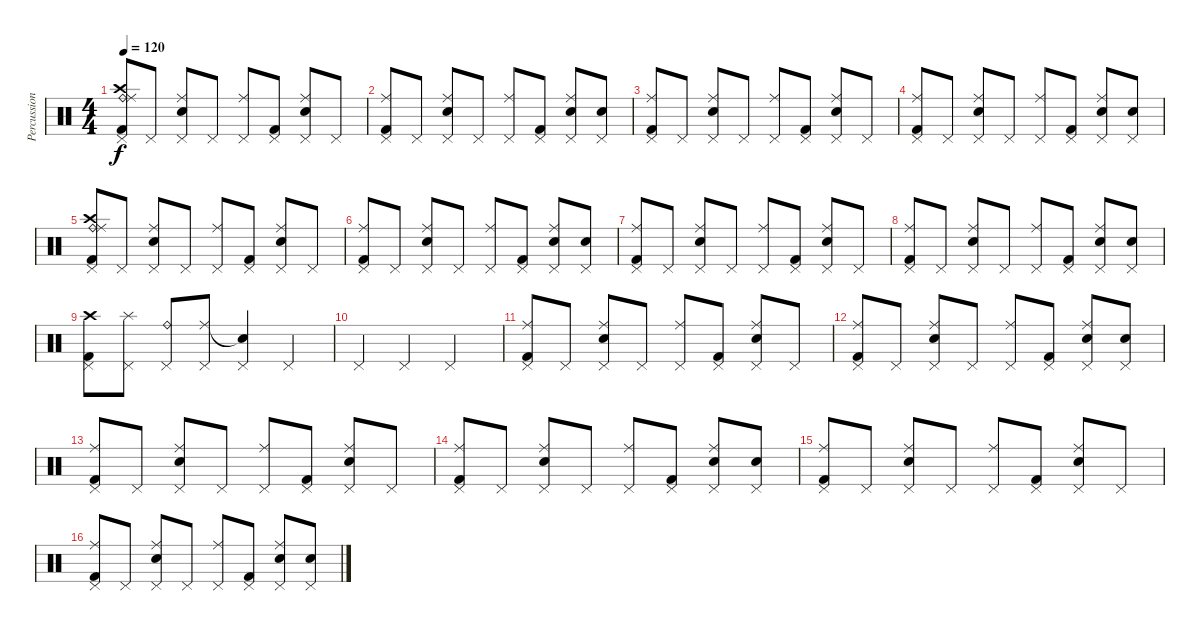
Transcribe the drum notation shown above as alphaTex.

\track ("Percussion" "Percussion") {instrument percussion}
\staff {score}
\articulation defaults
\ts (4 4)
\tempo 120
\clef neutral
\ks c
("Pedal Hi-Hat (hit)" "Kick (hit) 2" "Crash high (hit)" "Ride (bell)" "Ride (middle)").8{dy f} "Pedal Hi-Hat (hit)".8 ("Pedal Hi-Hat (hit)" "Electric Snare (hit)" "Ride (middle)").8 "Pedal Hi-Hat (hit)".8 ("Pedal Hi-Hat (hit)" "Ride (middle)").8 ("Pedal Hi-Hat (hit)" "Kick (hit) 2").8 ("Pedal Hi-Hat (hit)" "Electric Snare (hit)" "Ride (middle)").8 "Pedal Hi-Hat (hit)".8 |
("Pedal Hi-Hat (hit)" "Kick (hit) 2" "Ride (middle)").8 "Pedal Hi-Hat (hit)".8 ("Pedal Hi-Hat (hit)" "Electric Snare (hit)" "Ride (middle)").8 "Pedal Hi-Hat (hit)".8 ("Pedal Hi-Hat (hit)" "Ride (middle)").8 ("Pedal Hi-Hat (hit)" "Kick (hit) 2").8 ("Pedal Hi-Hat (hit)" "Electric Snare (hit)" "Ride (middle)").8 ("Pedal Hi-Hat (hit)" "Electric Snare (hit)").8 |
("Pedal Hi-Hat (hit)" "Kick (hit) 2" "Ride (middle)").8 "Pedal Hi-Hat (hit)".8 ("Pedal Hi-Hat (hit)" "Electric Snare (hit)" "Ride (middle)").8 "Pedal Hi-Hat (hit)".8 ("Pedal Hi-Hat (hit)" "Ride (middle)").8 ("Pedal Hi-Hat (hit)" "Kick (hit) 2").8 ("Pedal Hi-Hat (hit)" "Electric Snare (hit)" "Ride (middle)").8 "Pedal Hi-Hat (hit)".8 |
("Pedal Hi-Hat (hit)" "Kick (hit) 2" "Ride (middle)").8 "Pedal Hi-Hat (hit)".8 ("Pedal Hi-Hat (hit)" "Electric Snare (hit)" "Ride (middle)").8 "Pedal Hi-Hat (hit)".8 ("Pedal Hi-Hat (hit)" "Ride (middle)").8 ("Pedal Hi-Hat (hit)" "Kick (hit) 2").8 ("Pedal Hi-Hat (hit)" "Electric Snare (hit)" "Ride (middle)").8 ("Pedal Hi-Hat (hit)" "Electric Snare (hit)").8 |
("Pedal Hi-Hat (hit)" "Kick (hit) 2" "Crash high (hit)" "Ride (bell)" "Ride (middle)").8 "Pedal Hi-Hat (hit)".8 ("Pedal Hi-Hat (hit)" "Electric Snare (hit)" "Ride (middle)").8 "Pedal Hi-Hat (hit)".8 ("Pedal Hi-Hat (hit)" "Ride (middle)").8 ("Pedal Hi-Hat (hit)" "Kick (hit) 2").8 ("Pedal Hi-Hat (hit)" "Electric Snare (hit)" "Ride (middle)").8 "Pedal Hi-Hat (hit)".8 |
("Pedal Hi-Hat (hit)" "Kick (hit) 2" "Ride (middle)").8 "Pedal Hi-Hat (hit)".8 ("Pedal Hi-Hat (hit)" "Electric Snare (hit)" "Ride (middle)").8 "Pedal Hi-Hat (hit)".8 ("Pedal Hi-Hat (hit)" "Ride (middle)").8 ("Pedal Hi-Hat (hit)" "Kick (hit) 2").8 ("Pedal Hi-Hat (hit)" "Electric Snare (hit)" "Ride (middle)").8 ("Pedal Hi-Hat (hit)" "Electric Snare (hit)").8 |
("Pedal Hi-Hat (hit)" "Kick (hit) 2" "Ride (middle)").8 "Pedal Hi-Hat (hit)".8 ("Pedal Hi-Hat (hit)" "Electric Snare (hit)" "Ride (middle)").8 "Pedal Hi-Hat (hit)".8 ("Pedal Hi-Hat (hit)" "Ride (middle)").8 ("Pedal Hi-Hat (hit)" "Kick (hit) 2").8 ("Pedal Hi-Hat (hit)" "Electric Snare (hit)" "Ride (middle)").8 "Pedal Hi-Hat (hit)".8 |
("Pedal Hi-Hat (hit)" "Kick (hit) 2" "Ride (middle)").8 "Pedal Hi-Hat (hit)".8 ("Pedal Hi-Hat (hit)" "Electric Snare (hit)" "Ride (middle)").8 "Pedal Hi-Hat (hit)".8 ("Pedal Hi-Hat (hit)" "Ride (middle)").8 ("Pedal Hi-Hat (hit)" "Kick (hit) 2").8 ("Pedal Hi-Hat (hit)" "Electric Snare (hit)" "Ride (middle)").8 ("Pedal Hi-Hat (hit)" "Electric Snare (hit)").8 |
("Pedal Hi-Hat (hit)" "Kick (hit) 2" "Crash high (hit)").8 ("Pedal Hi-Hat (hit)" "Splash (hit)").8 ("Pedal Hi-Hat (hit)" "Ride (bell)").8 ("Pedal Hi-Hat (hit)" "Ride (middle)").8 ("Pedal Hi-Hat (hit)" "Snare (hit)"{t}).4 "Pedal Hi-Hat (hit)".4 |
"Pedal Hi-Hat (hit)".4 "Pedal Hi-Hat (hit)".4 "Pedal Hi-Hat (hit)".2 |
("Pedal Hi-Hat (hit)" "Kick (hit) 2" "Ride (middle)").8 "Pedal Hi-Hat (hit)".8 ("Pedal Hi-Hat (hit)" "Electric Snare (hit)" "Ride (middle)").8 "Pedal Hi-Hat (hit)".8 ("Pedal Hi-Hat (hit)" "Ride (middle)").8 ("Pedal Hi-Hat (hit)" "Kick (hit) 2").8 ("Pedal Hi-Hat (hit)" "Electric Snare (hit)" "Ride (middle)").8 "Pedal Hi-Hat (hit)".8 |
("Pedal Hi-Hat (hit)" "Kick (hit) 2" "Ride (middle)").8 "Pedal Hi-Hat (hit)".8 ("Pedal Hi-Hat (hit)" "Electric Snare (hit)" "Ride (middle)").8 "Pedal Hi-Hat (hit)".8 ("Pedal Hi-Hat (hit)" "Ride (middle)").8 ("Pedal Hi-Hat (hit)" "Kick (hit) 2").8 ("Pedal Hi-Hat (hit)" "Electric Snare (hit)" "Ride (middle)").8 ("Pedal Hi-Hat (hit)" "Electric Snare (hit)").8 |
("Pedal Hi-Hat (hit)" "Kick (hit) 2" "Ride (middle)").8 "Pedal Hi-Hat (hit)".8 ("Pedal Hi-Hat (hit)" "Electric Snare (hit)" "Ride (middle)").8 "Pedal Hi-Hat (hit)".8 ("Pedal Hi-Hat (hit)" "Ride (middle)").8 ("Pedal Hi-Hat (hit)" "Kick (hit) 2").8 ("Pedal Hi-Hat (hit)" "Electric Snare (hit)" "Ride (middle)").8 "Pedal Hi-Hat (hit)".8 |
("Pedal Hi-Hat (hit)" "Kick (hit) 2" "Ride (middle)").8 "Pedal Hi-Hat (hit)".8 ("Pedal Hi-Hat (hit)" "Electric Snare (hit)" "Ride (middle)").8 "Pedal Hi-Hat (hit)".8 ("Pedal Hi-Hat (hit)" "Ride (middle)").8 ("Pedal Hi-Hat (hit)" "Kick (hit) 2").8 ("Pedal Hi-Hat (hit)" "Electric Snare (hit)" "Ride (middle)").8 ("Pedal Hi-Hat (hit)" "Electric Snare (hit)").8 |
("Pedal Hi-Hat (hit)" "Kick (hit) 2" "Ride (middle)").8 "Pedal Hi-Hat (hit)".8 ("Pedal Hi-Hat (hit)" "Electric Snare (hit)" "Ride (middle)").8 "Pedal Hi-Hat (hit)".8 ("Pedal Hi-Hat (hit)" "Ride (middle)").8 ("Pedal Hi-Hat (hit)" "Kick (hit) 2").8 ("Pedal Hi-Hat (hit)" "Electric Snare (hit)" "Ride (middle)").8 "Pedal Hi-Hat (hit)".8 |
("Pedal Hi-Hat (hit)" "Kick (hit) 2" "Ride (middle)").8 "Pedal Hi-Hat (hit)".8 ("Pedal Hi-Hat (hit)" "Electric Snare (hit)" "Ride (middle)").8 "Pedal Hi-Hat (hit)".8 ("Pedal Hi-Hat (hit)" "Ride (middle)").8 ("Pedal Hi-Hat (hit)" "Kick (hit) 2").8 ("Pedal Hi-Hat (hit)" "Electric Snare (hit)" "Ride (middle)").8 ("Pedal Hi-Hat (hit)" "Electric Snare (hit)").8
